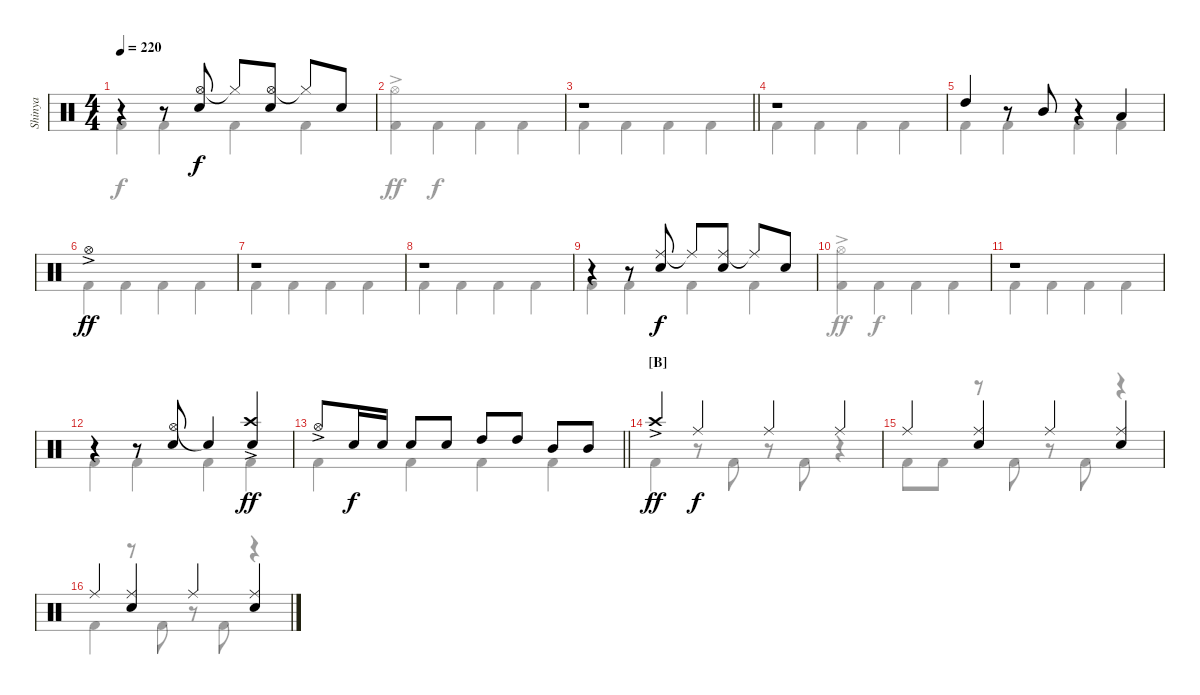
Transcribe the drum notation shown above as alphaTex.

\track ("Shinya" "Shinya") {instrument percussion}
\staff {score}
\articulation defaults
\voice
\ts (4 4)
\tempo 220
\clef neutral
\ks c
r.4{dy ff} r.8 ("Hi-Hat (open)" "Snare (hit) 2").8{dy f} "Hi-Hat (closed)"{t}.8 ("Hi-Hat (open)" "Snare (hit) 2").8 "Hi-Hat (closed)"{t}.8 "Snare (hit) 2".8 |
|
\barLineRight lightlight
r.1 |
r.1 |
"High Tom (hit)".4 r.8 "Mid Tom (hit)".8 r.4 "Low Tom (hit)".4 |
"Hi-Hat (open)"{ac}.1{dy ff} |
r.1 |
r.1 |
r.4 r.8 ("Ride (middle)" "Snare (hit) 2").8{dy f} "Ride (middle)"{t}.8 ("Ride (middle)" "Snare (hit) 2").8 "Ride (middle)"{t}.8 "Snare (hit) 2".8 |
|
r.1 |
r.4 r.8 ("Hi-Hat (open)" "Snare (hit) 2").8 "Snare (hit)"{t}.4 ("Crash high (hit)"{ac} "Snare (hit) 2").4{dy ff} |
\barLineRight lightlight "Hi-Hat (open)"{ac}.8 "Snare (hit) 2".16{dy f} "Snare (hit) 2".16 "Snare (hit) 2".8 "Snare (hit) 2".8 "High Tom (hit)".8 "High Tom (hit)".8 "Mid Tom (hit)".8 "Mid Tom (hit)".8
|
\section ("" "[B]")
"Crash high (hit)"{ac}.4{dy ff} "Ride (middle)".4{dy f} "Ride (middle)".4 "Ride (middle)".4 |
"Ride (middle)".4 ("Ride (middle)" "Snare (hit) 2").4 "Ride (middle)".4 ("Ride (middle)" "Snare (hit) 2").4 |
"Ride (middle)".4 ("Ride (middle)" "Snare (hit) 2").4 "Ride (middle)".4 ("Ride (middle)" "Snare (hit) 2").4
\voice
\clef neutral
\ottava regular
\simile none
\ks c "Kick (hit) 2".4{dy f} "Kick (hit) 2".4 "Kick (hit) 2".4 "Kick (hit) 2".4
|
("Hi-Hat (open)"{ac} "Kick (hit) 2").4{dy ff} "Kick (hit) 2".4{dy f} "Kick (hit) 2".4 "Kick (hit) 2".4 |
\barLineRight lightlight "Kick (hit) 2".4 "Kick (hit) 2".4 "Kick (hit) 2".4 "Kick (hit) 2".4
|
"Kick (hit) 2".4 "Kick (hit) 2".4 "Kick (hit) 2".4 "Kick (hit) 2".4 |
"Kick (hit) 2".4 "Kick (hit) 2".4 "Kick (hit) 2".4 "Kick (hit) 2".4 |
"Kick (hit) 2".4 "Kick (hit) 2".4 "Kick (hit) 2".4 "Kick (hit) 2".4 |
"Kick (hit) 2".4 "Kick (hit) 2".4 "Kick (hit) 2".4 "Kick (hit) 2".4 |
"Kick (hit) 2".4 "Kick (hit) 2".4 "Kick (hit) 2".4 "Kick (hit) 2".4 |
"Kick (hit) 2".4 "Kick (hit) 2".4 "Kick (hit) 2".4 "Kick (hit) 2".4 |
("Hi-Hat (open)"{ac} "Kick (hit) 2").4{dy ff} "Kick (hit) 2".4{dy f} "Kick (hit) 2".4 "Kick (hit) 2".4 |
"Kick (hit) 2".4 "Kick (hit) 2".4 "Kick (hit) 2".4 "Kick (hit) 2".4 |
"Kick (hit) 2".4 "Kick (hit) 2".4 "Kick (hit) 2".4 "Kick (hit) 2".4 |
\barLineRight lightlight "Kick (hit) 2".4 "Kick (hit) 2".4 "Kick (hit) 2".4 "Kick (hit) 2".4
|
"Kick (hit) 2".4 r.8 "Kick (hit) 2".8 r.8 "Kick (hit) 2".8 r.4 |
"Kick (hit) 2".8 "Kick (hit) 2".8 r.8 "Kick (hit) 2".8 r.8 "Kick (hit) 2".8 r.4 |
"Kick (hit) 2".4 r.8 "Kick (hit) 2".8 r.8 "Kick (hit) 2".8 r.4
